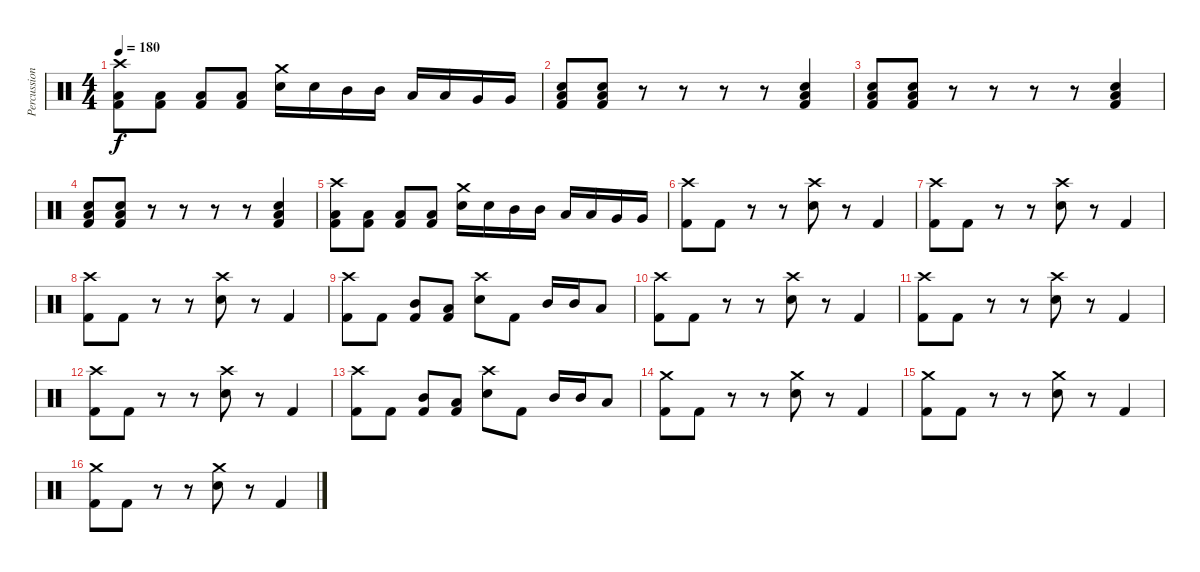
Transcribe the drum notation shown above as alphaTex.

\track ("Percussion" "Percussion") {instrument percussion}
\staff {score}
\articulation defaults
\ts (4 4)
\tempo 180
\clef neutral
\ks c
("Crash high (hit)" "Low Tom (hit)" "Kick (hit) 2").8{dy f} ("Low Tom (hit)" "Kick (hit) 2").8 ("Low Tom (hit)" "Kick (hit) 2").8 ("Low Tom (hit)" "Kick (hit) 2").8 ("Crash medium (hit)" "Electric Snare (hit)").16 "Electric Snare (hit)".16 "Mid Tom (hit)".16 "Mid Tom (hit)".16 "Low Tom (hit)".16 "Low Tom (hit)".16 "Very Low Tom (hit)".16 "Very Low Tom (hit)".16 |
("Low Floor Tom (hit)" "Electric Snare (hit)" "Kick (hit) 2").8 ("Low Floor Tom (hit)" "Electric Snare (hit)" "Kick (hit) 2").8 r.8 r.8 r.8 r.8 ("Low Floor Tom (hit)" "Electric Snare (hit)" "Kick (hit) 2").4 |
("Low Floor Tom (hit)" "Electric Snare (hit)" "Kick (hit) 2").8 ("Low Floor Tom (hit)" "Electric Snare (hit)" "Kick (hit) 2").8 r.8 r.8 r.8 r.8 ("Low Floor Tom (hit)" "Electric Snare (hit)" "Kick (hit) 2").4 |
("Low Floor Tom (hit)" "Electric Snare (hit)" "Kick (hit) 2").8 ("Low Floor Tom (hit)" "Electric Snare (hit)" "Kick (hit) 2").8 r.8 r.8 r.8 r.8 ("Low Floor Tom (hit)" "Electric Snare (hit)" "Kick (hit) 2").4 |
("Crash high (hit)" "Low Tom (hit)" "Kick (hit) 2").8 ("Low Tom (hit)" "Kick (hit) 2").8 ("Low Tom (hit)" "Kick (hit) 2").8 ("Low Tom (hit)" "Kick (hit) 2").8 ("Crash medium (hit)" "Electric Snare (hit)").16 "Electric Snare (hit)".16 "Mid Tom (hit)".16 "Mid Tom (hit)".16 "Low Tom (hit)".16 "Low Tom (hit)".16 "Very Low Tom (hit)".16 "Very Low Tom (hit)".16 |
("Crash high (hit)" "Kick (hit) 2").8 "Kick (hit) 2".8 r.8 r.8 ("Crash high (hit)" "Electric Snare (hit)").8 r.8 "Kick (hit) 2".4 |
("Crash high (hit)" "Kick (hit) 2").8 "Kick (hit) 2".8 r.8 r.8 ("Crash high (hit)" "Electric Snare (hit)").8 r.8 "Kick (hit) 2".4 |
("Crash high (hit)" "Kick (hit) 2").8 "Kick (hit) 2".8 r.8 r.8 ("Crash high (hit)" "Electric Snare (hit)").8 r.8 "Kick (hit) 2".4 |
("Crash high (hit)" "Kick (hit) 2").8 "Kick (hit) 2".8 ("Mid Tom (hit)" "Kick (hit) 2").8 ("Low Tom (hit)" "Kick (hit) 2").8 ("Crash high (hit)" "Electric Snare (hit)").8 "Kick (hit) 2".8 "Mid Tom (hit)".16 "Mid Tom (hit)".16 "Low Tom (hit)".8 |
("Crash high (hit)" "Kick (hit) 2").8 "Kick (hit) 2".8 r.8 r.8 ("Crash high (hit)" "Electric Snare (hit)").8 r.8 "Kick (hit) 2".4 |
("Crash high (hit)" "Kick (hit) 2").8 "Kick (hit) 2".8 r.8 r.8 ("Crash high (hit)" "Electric Snare (hit)").8 r.8 "Kick (hit) 2".4 |
("Crash high (hit)" "Kick (hit) 2").8 "Kick (hit) 2".8 r.8 r.8 ("Crash high (hit)" "Electric Snare (hit)").8 r.8 "Kick (hit) 2".4 |
("Crash high (hit)" "Kick (hit) 2").8 "Kick (hit) 2".8 ("Mid Tom (hit)" "Kick (hit) 2").8 ("Low Tom (hit)" "Kick (hit) 2").8 ("Crash high (hit)" "Electric Snare (hit)").8 "Kick (hit) 2".8 "Mid Tom (hit)".16 "Mid Tom (hit)".16 "Low Tom (hit)".8 |
("Crash medium (hit)" "Kick (hit) 2").8 "Kick (hit) 2".8 r.8 r.8 ("Crash medium (hit)" "Electric Snare (hit)").8 r.8 "Kick (hit) 2".4 |
("Crash medium (hit)" "Kick (hit) 2").8 "Kick (hit) 2".8 r.8 r.8 ("Crash medium (hit)" "Electric Snare (hit)").8 r.8 "Kick (hit) 2".4 |
("Crash medium (hit)" "Kick (hit) 2").8 "Kick (hit) 2".8 r.8 r.8 ("Crash medium (hit)" "Electric Snare (hit)").8 r.8 "Kick (hit) 2".4
